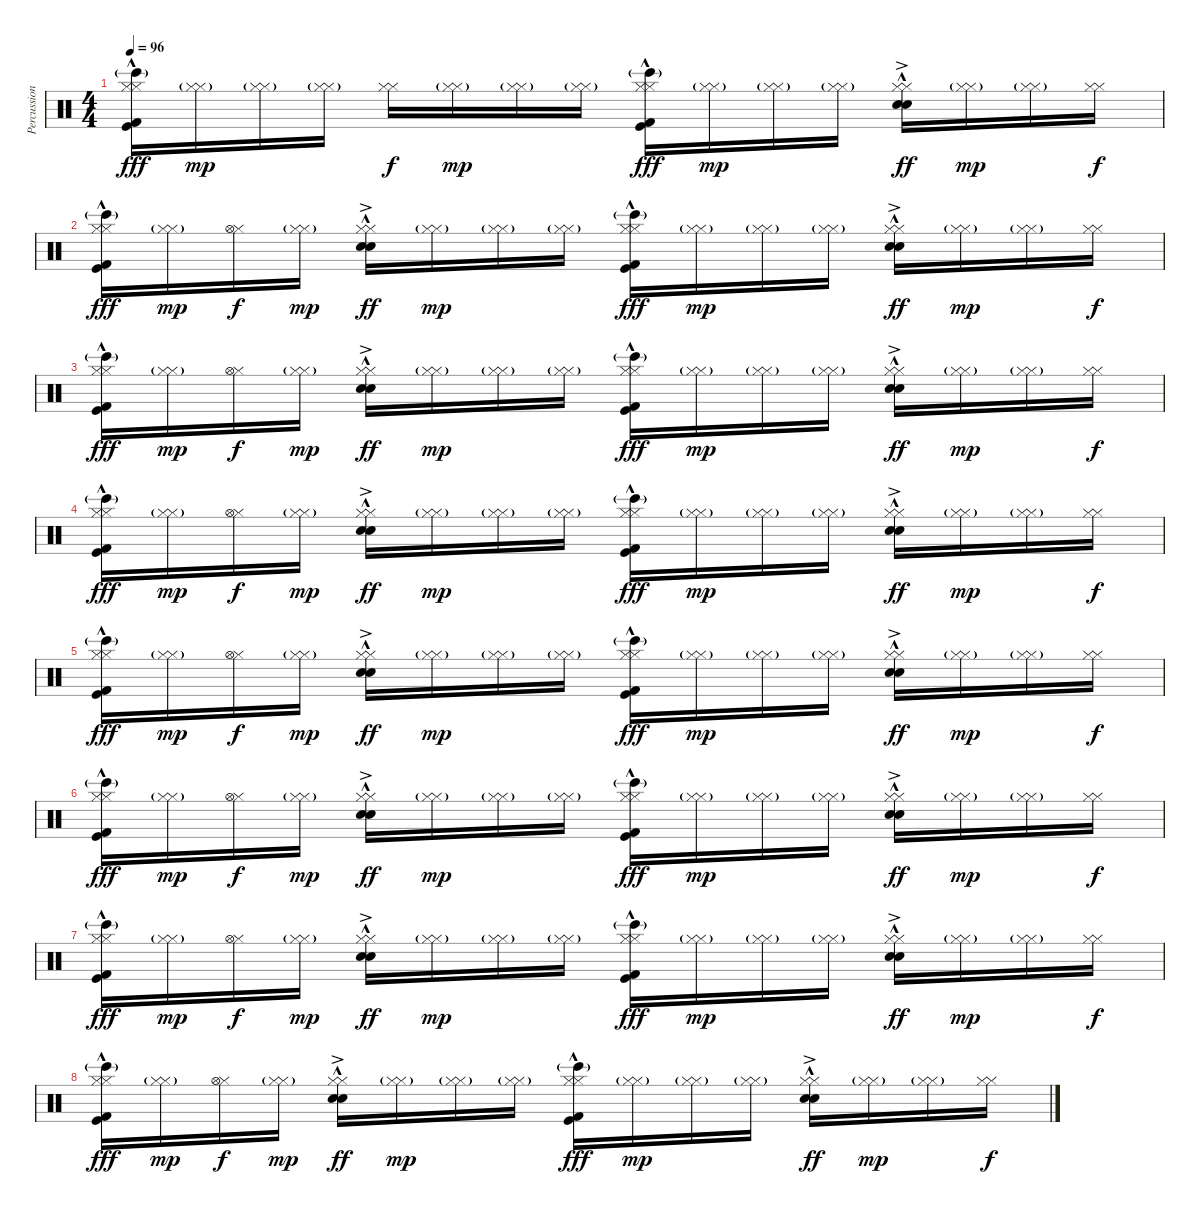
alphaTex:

\track ("Percussion" "Percussion") {instrument percussion}
\staff {score}
\articulation defaults
\ts (4 4)
\tempo 96
\clef neutral
\ks c
("Hi-Hat (closed)" "Hi-Hat (closed)" "Bongo High (hit)"{g} "Kick (hit) 2"{hac} "Kick (hit)"{hac}).16{dy fff} ("Hi-Hat (closed)" "Hi-Hat (closed)"{g}).16{dy mp} ("Hi-Hat (closed)" "Hi-Hat (closed)"{g}).16 ("Hi-Hat (closed)" "Hi-Hat (closed)"{g}).16 ("Hi-Hat (closed)" "Hi-Hat (closed)").16{dy f} ("Hi-Hat (closed)" "Hi-Hat (closed)"{g}).16{dy mp} ("Hi-Hat (closed)" "Hi-Hat (closed)"{g}).16 ("Hi-Hat (closed)" "Hi-Hat (closed)"{g}).16 ("Hi-Hat (closed)" "Hi-Hat (closed)" "Bongo High (hit)"{g} "Kick (hit) 2"{hac} "Kick (hit)"{hac}).16{dy fff} ("Hi-Hat (closed)" "Hi-Hat (closed)"{g}).16{dy mp} ("Hi-Hat (closed)" "Hi-Hat (closed)"{g}).16 ("Hi-Hat (closed)" "Hi-Hat (closed)"{g}).16 ("Hi-Hat (closed)" "Hi-Hat (closed)" "Hand Clap (hit)"{hac} "Snare (hit) 2"{ac}).16{dy ff} ("Hi-Hat (closed)" "Hi-Hat (closed)"{g}).16{dy mp} ("Hi-Hat (closed)" "Hi-Hat (closed)"{g}).16 ("Hi-Hat (closed)" "Hi-Hat (closed)").16{dy f} |
("Hi-Hat (closed)" "Hi-Hat (closed)" "Bongo High (hit)"{g} "Kick (hit) 2"{hac} "Kick (hit)"{hac}).16{dy fff} ("Hi-Hat (closed)" "Hi-Hat (closed)"{g}).16{dy mp} ("Hi-Hat (closed)" "Hi-Hat (open)").16{dy f} ("Hi-Hat (closed)" "Hi-Hat (closed)"{g}).16{dy mp} ("Hi-Hat (closed)" "Hi-Hat (closed)" "Hand Clap (hit)"{hac} "Snare (hit) 2"{ac}).16{dy ff} ("Hi-Hat (closed)" "Hi-Hat (closed)"{g}).16{dy mp} ("Hi-Hat (closed)" "Hi-Hat (closed)"{g}).16 ("Hi-Hat (closed)" "Hi-Hat (closed)"{g}).16 ("Hi-Hat (closed)" "Hi-Hat (closed)" "Bongo High (hit)"{g} "Kick (hit) 2"{hac} "Kick (hit)"{hac}).16{dy fff} ("Hi-Hat (closed)" "Hi-Hat (closed)"{g}).16{dy mp} ("Hi-Hat (closed)" "Hi-Hat (closed)"{g}).16 ("Hi-Hat (closed)" "Hi-Hat (closed)"{g}).16 ("Hi-Hat (closed)" "Hi-Hat (closed)" "Hand Clap (hit)"{hac} "Snare (hit) 2"{ac}).16{dy ff} ("Hi-Hat (closed)" "Hi-Hat (closed)"{g}).16{dy mp} ("Hi-Hat (closed)" "Hi-Hat (closed)"{g}).16 ("Hi-Hat (closed)" "Hi-Hat (closed)").16{dy f} |
("Hi-Hat (closed)" "Hi-Hat (closed)" "Bongo High (hit)"{g} "Kick (hit) 2"{hac} "Kick (hit)"{hac}).16{dy fff} ("Hi-Hat (closed)" "Hi-Hat (closed)"{g}).16{dy mp} ("Hi-Hat (closed)" "Hi-Hat (open)").16{dy f} ("Hi-Hat (closed)" "Hi-Hat (closed)"{g}).16{dy mp} ("Hi-Hat (closed)" "Hi-Hat (closed)" "Hand Clap (hit)"{hac} "Snare (hit) 2"{ac}).16{dy ff} ("Hi-Hat (closed)" "Hi-Hat (closed)"{g}).16{dy mp} ("Hi-Hat (closed)" "Hi-Hat (closed)"{g}).16 ("Hi-Hat (closed)" "Hi-Hat (closed)"{g}).16 ("Hi-Hat (closed)" "Hi-Hat (closed)" "Bongo High (hit)"{g} "Kick (hit) 2"{hac} "Kick (hit)"{hac}).16{dy fff} ("Hi-Hat (closed)" "Hi-Hat (closed)"{g}).16{dy mp} ("Hi-Hat (closed)" "Hi-Hat (closed)"{g}).16 ("Hi-Hat (closed)" "Hi-Hat (closed)"{g}).16 ("Hi-Hat (closed)" "Hi-Hat (closed)" "Hand Clap (hit)"{hac} "Snare (hit) 2"{ac}).16{dy ff} ("Hi-Hat (closed)" "Hi-Hat (closed)"{g}).16{dy mp} ("Hi-Hat (closed)" "Hi-Hat (closed)"{g}).16 ("Hi-Hat (closed)" "Hi-Hat (closed)").16{dy f} |
("Hi-Hat (closed)" "Hi-Hat (closed)" "Bongo High (hit)"{g} "Kick (hit) 2"{hac} "Kick (hit)"{hac}).16{dy fff} ("Hi-Hat (closed)" "Hi-Hat (closed)"{g}).16{dy mp} ("Hi-Hat (closed)" "Hi-Hat (open)").16{dy f} ("Hi-Hat (closed)" "Hi-Hat (closed)"{g}).16{dy mp} ("Hi-Hat (closed)" "Hi-Hat (closed)" "Hand Clap (hit)"{hac} "Snare (hit) 2"{ac}).16{dy ff} ("Hi-Hat (closed)" "Hi-Hat (closed)"{g}).16{dy mp} ("Hi-Hat (closed)" "Hi-Hat (closed)"{g}).16 ("Hi-Hat (closed)" "Hi-Hat (closed)"{g}).16 ("Hi-Hat (closed)" "Hi-Hat (closed)" "Bongo High (hit)"{g} "Kick (hit) 2"{hac} "Kick (hit)"{hac}).16{dy fff} ("Hi-Hat (closed)" "Hi-Hat (closed)"{g}).16{dy mp} ("Hi-Hat (closed)" "Hi-Hat (closed)"{g}).16 ("Hi-Hat (closed)" "Hi-Hat (closed)"{g}).16 ("Hi-Hat (closed)" "Hi-Hat (closed)" "Hand Clap (hit)"{hac} "Snare (hit) 2"{ac}).16{dy ff} ("Hi-Hat (closed)" "Hi-Hat (closed)"{g}).16{dy mp} ("Hi-Hat (closed)" "Hi-Hat (closed)"{g}).16 ("Hi-Hat (closed)" "Hi-Hat (closed)").16{dy f} |
("Hi-Hat (closed)" "Hi-Hat (closed)" "Bongo High (hit)"{g} "Kick (hit) 2"{hac} "Kick (hit)"{hac}).16{dy fff} ("Hi-Hat (closed)" "Hi-Hat (closed)"{g}).16{dy mp} ("Hi-Hat (closed)" "Hi-Hat (open)").16{dy f} ("Hi-Hat (closed)" "Hi-Hat (closed)"{g}).16{dy mp} ("Hi-Hat (closed)" "Hi-Hat (closed)" "Hand Clap (hit)"{hac} "Snare (hit) 2"{ac}).16{dy ff} ("Hi-Hat (closed)" "Hi-Hat (closed)"{g}).16{dy mp} ("Hi-Hat (closed)" "Hi-Hat (closed)"{g}).16 ("Hi-Hat (closed)" "Hi-Hat (closed)"{g}).16 ("Hi-Hat (closed)" "Hi-Hat (closed)" "Bongo High (hit)"{g} "Kick (hit) 2"{hac} "Kick (hit)"{hac}).16{dy fff} ("Hi-Hat (closed)" "Hi-Hat (closed)"{g}).16{dy mp} ("Hi-Hat (closed)" "Hi-Hat (closed)"{g}).16 ("Hi-Hat (closed)" "Hi-Hat (closed)"{g}).16 ("Hi-Hat (closed)" "Hi-Hat (closed)" "Hand Clap (hit)"{hac} "Snare (hit) 2"{ac}).16{dy ff} ("Hi-Hat (closed)" "Hi-Hat (closed)"{g}).16{dy mp} ("Hi-Hat (closed)" "Hi-Hat (closed)"{g}).16 ("Hi-Hat (closed)" "Hi-Hat (closed)").16{dy f} |
("Hi-Hat (closed)" "Hi-Hat (closed)" "Bongo High (hit)"{g} "Kick (hit) 2"{hac} "Kick (hit)"{hac}).16{dy fff} ("Hi-Hat (closed)" "Hi-Hat (closed)"{g}).16{dy mp} ("Hi-Hat (closed)" "Hi-Hat (open)").16{dy f} ("Hi-Hat (closed)" "Hi-Hat (closed)"{g}).16{dy mp} ("Hi-Hat (closed)" "Hi-Hat (closed)" "Hand Clap (hit)"{hac} "Snare (hit) 2"{ac}).16{dy ff} ("Hi-Hat (closed)" "Hi-Hat (closed)"{g}).16{dy mp} ("Hi-Hat (closed)" "Hi-Hat (closed)"{g}).16 ("Hi-Hat (closed)" "Hi-Hat (closed)"{g}).16 ("Hi-Hat (closed)" "Hi-Hat (closed)" "Bongo High (hit)"{g} "Kick (hit) 2"{hac} "Kick (hit)"{hac}).16{dy fff} ("Hi-Hat (closed)" "Hi-Hat (closed)"{g}).16{dy mp} ("Hi-Hat (closed)" "Hi-Hat (closed)"{g}).16 ("Hi-Hat (closed)" "Hi-Hat (closed)"{g}).16 ("Hi-Hat (closed)" "Hi-Hat (closed)" "Hand Clap (hit)"{hac} "Snare (hit) 2"{ac}).16{dy ff} ("Hi-Hat (closed)" "Hi-Hat (closed)"{g}).16{dy mp} ("Hi-Hat (closed)" "Hi-Hat (closed)"{g}).16 ("Hi-Hat (closed)" "Hi-Hat (closed)").16{dy f} |
("Hi-Hat (closed)" "Hi-Hat (closed)" "Bongo High (hit)"{g} "Kick (hit) 2"{hac} "Kick (hit)"{hac}).16{dy fff} ("Hi-Hat (closed)" "Hi-Hat (closed)"{g}).16{dy mp} ("Hi-Hat (closed)" "Hi-Hat (open)").16{dy f} ("Hi-Hat (closed)" "Hi-Hat (closed)"{g}).16{dy mp} ("Hi-Hat (closed)" "Hi-Hat (closed)" "Hand Clap (hit)"{hac} "Snare (hit) 2"{ac}).16{dy ff} ("Hi-Hat (closed)" "Hi-Hat (closed)"{g}).16{dy mp} ("Hi-Hat (closed)" "Hi-Hat (closed)"{g}).16 ("Hi-Hat (closed)" "Hi-Hat (closed)"{g}).16 ("Hi-Hat (closed)" "Hi-Hat (closed)" "Bongo High (hit)"{g} "Kick (hit) 2"{hac} "Kick (hit)"{hac}).16{dy fff} ("Hi-Hat (closed)" "Hi-Hat (closed)"{g}).16{dy mp} ("Hi-Hat (closed)" "Hi-Hat (closed)"{g}).16 ("Hi-Hat (closed)" "Hi-Hat (closed)"{g}).16 ("Hi-Hat (closed)" "Hi-Hat (closed)" "Hand Clap (hit)"{hac} "Snare (hit) 2"{ac}).16{dy ff} ("Hi-Hat (closed)" "Hi-Hat (closed)"{g}).16{dy mp} ("Hi-Hat (closed)" "Hi-Hat (closed)"{g}).16 ("Hi-Hat (closed)" "Hi-Hat (closed)").16{dy f} |
("Hi-Hat (closed)" "Hi-Hat (closed)" "Bongo High (hit)"{g} "Kick (hit) 2"{hac} "Kick (hit)"{hac}).16{dy fff} ("Hi-Hat (closed)" "Hi-Hat (closed)"{g}).16{dy mp} ("Hi-Hat (closed)" "Hi-Hat (open)").16{dy f} ("Hi-Hat (closed)" "Hi-Hat (closed)"{g}).16{dy mp} ("Hi-Hat (closed)" "Hi-Hat (closed)" "Hand Clap (hit)"{hac} "Snare (hit) 2"{ac}).16{dy ff} ("Hi-Hat (closed)" "Hi-Hat (closed)"{g}).16{dy mp} ("Hi-Hat (closed)" "Hi-Hat (closed)"{g}).16 ("Hi-Hat (closed)" "Hi-Hat (closed)"{g}).16 ("Hi-Hat (closed)" "Hi-Hat (closed)" "Bongo High (hit)"{g} "Kick (hit) 2"{hac} "Kick (hit)"{hac}).16{dy fff} ("Hi-Hat (closed)" "Hi-Hat (closed)"{g}).16{dy mp} ("Hi-Hat (closed)" "Hi-Hat (closed)"{g}).16 ("Hi-Hat (closed)" "Hi-Hat (closed)"{g}).16 ("Hi-Hat (closed)" "Hi-Hat (closed)" "Hand Clap (hit)"{hac} "Snare (hit) 2"{ac}).16{dy ff} ("Hi-Hat (closed)" "Hi-Hat (closed)"{g}).16{dy mp} ("Hi-Hat (closed)" "Hi-Hat (closed)"{g}).16 ("Hi-Hat (closed)" "Hi-Hat (closed)").16{dy f}
